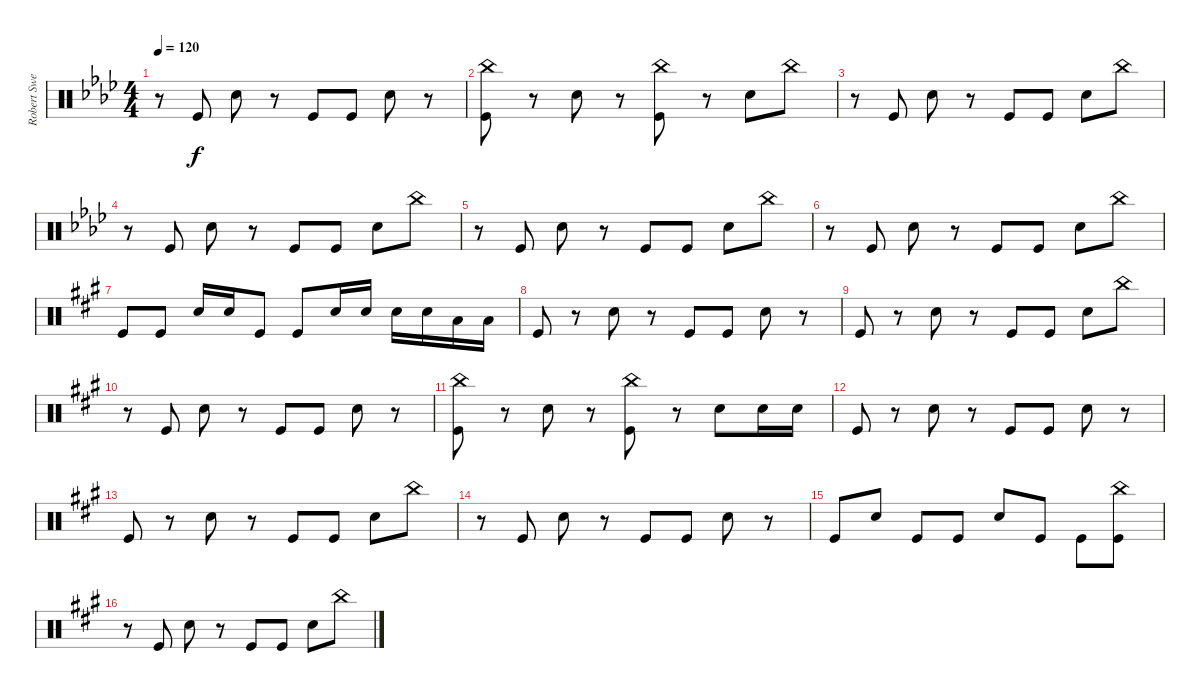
\track ("Robert Sweet" "Robert Swe") {instrument percussion}
\staff {score}
\articulation defaults
\ts (4 4)
\tempo 120
\clef neutral
\ks ab
r.8{dy f} "Kick (hit)".8 "Snare (hit) 2".8 r.8 "Kick (hit)".8 "Kick (hit)".8 "Snare (hit) 2".8 r.8 |
("Kick (hit)" "China (hit)").8 r.8 "Snare (hit) 2".8 r.8 ("Kick (hit)" "China (hit)").8 r.8 "Snare (hit) 2".8 "China (hit)".8 |
r.8 "Kick (hit)".8 "Snare (hit) 2".8 r.8 "Kick (hit)".8 "Kick (hit)".8 "Snare (hit) 2".8 "China (hit)".8 |
r.8 "Kick (hit)".8 "Snare (hit) 2".8 r.8 "Kick (hit)".8 "Kick (hit)".8 "Snare (hit) 2".8 "China (hit)".8 |
r.8 "Kick (hit)".8 "Snare (hit) 2".8 r.8 "Kick (hit)".8 "Kick (hit)".8 "Snare (hit) 2".8 "China (hit)".8 |
r.8 "Kick (hit)".8 "Snare (hit) 2".8 r.8 "Kick (hit)".8 "Kick (hit)".8 "Snare (hit) 2".8 "China (hit)".8 |
\ks a "Kick (hit)".8 "Kick (hit)".8 "Snare (hit) 2".16 "Snare (hit) 2".16 "Kick (hit)".8 "Kick (hit)".8 "Snare (hit) 2".16 "Snare (hit) 2".16 "Snare (hit) 2".16 "Snare (hit) 2".16 "Low Floor Tom (hit)".16 "Low Floor Tom (hit)".16
|
"Kick (hit)".8 r.8 "Snare (hit) 2".8 r.8 "Kick (hit)".8 "Kick (hit)".8 "Snare (hit) 2".8 r.8 |
"Kick (hit)".8 r.8 "Snare (hit) 2".8 r.8 "Kick (hit)".8 "Kick (hit)".8 "Snare (hit) 2".8 "China (hit)".8 |
r.8 "Kick (hit)".8 "Snare (hit) 2".8 r.8 "Kick (hit)".8 "Kick (hit)".8 "Snare (hit) 2".8 r.8 |
("Kick (hit)" "China (hit)").8 r.8 "Snare (hit) 2".8 r.8 ("Kick (hit)" "China (hit)").8 r.8 "Snare (hit) 2".8 "Snare (hit) 2".16 "Snare (hit) 2".16 |
"Kick (hit)".8 r.8 "Snare (hit) 2".8 r.8 "Kick (hit)".8 "Kick (hit)".8 "Snare (hit) 2".8 r.8 |
"Kick (hit)".8 r.8 "Snare (hit) 2".8 r.8 "Kick (hit)".8 "Kick (hit)".8 "Snare (hit) 2".8 "China (hit)".8 |
r.8 "Kick (hit)".8 "Snare (hit) 2".8 r.8 "Kick (hit)".8 "Kick (hit)".8 "Snare (hit) 2".8 r.8 |
"Kick (hit)".8 "Snare (hit) 2".8 "Kick (hit)".8 "Kick (hit)".8 "Snare (hit) 2".8 "Kick (hit)".8 "Kick (hit)".8 ("Kick (hit)" "China (hit)").8 |
r.8 "Kick (hit)".8 "Snare (hit) 2".8 r.8 "Kick (hit)".8 "Kick (hit)".8 "Snare (hit) 2".8 "China (hit)".8
